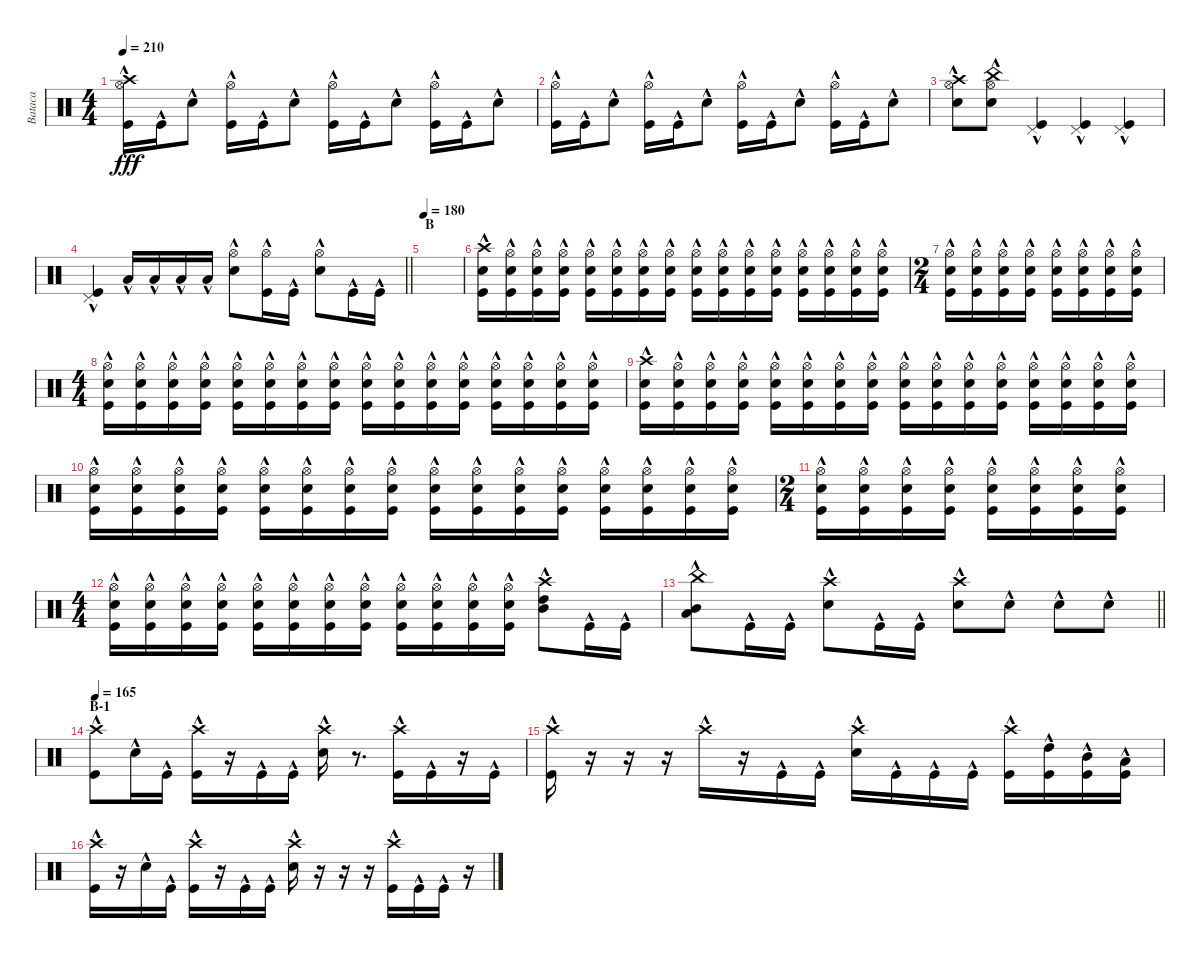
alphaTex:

\track ("Bataca" "Bataca") {instrument percussion}
\staff {score}
\articulation defaults
\ts (4 4)
\tempo 210
\clef neutral
\ks c
("Crash high (hit)"{hac} "Hi-Hat (open)"{hac} "Kick (hit)"{hac}).16{dy fff} "Kick (hit)"{hac}.16 "Electric Snare (hit)"{hac}.8 ("Hi-Hat (open)"{hac} "Kick (hit)"{hac}).16 "Kick (hit)"{hac}.16 "Electric Snare (hit)"{hac}.8 ("Hi-Hat (open)"{hac} "Kick (hit)"{hac}).16 "Kick (hit)"{hac}.16 "Electric Snare (hit)"{hac}.8 ("Hi-Hat (open)"{hac} "Kick (hit)"{hac}).16 "Kick (hit)"{hac}.16 "Electric Snare (hit)"{hac}.8 |
("Hi-Hat (open)"{hac} "Kick (hit)"{hac}).16 "Kick (hit)"{hac}.16 "Electric Snare (hit)"{hac}.8 ("Hi-Hat (open)"{hac} "Kick (hit)"{hac}).16 "Kick (hit)"{hac}.16 "Electric Snare (hit)"{hac}.8 ("Hi-Hat (open)"{hac} "Kick (hit)"{hac}).16 "Kick (hit)"{hac}.16 "Electric Snare (hit)"{hac}.8 ("Hi-Hat (open)"{hac} "Kick (hit)"{hac}).16 "Kick (hit)"{hac}.16 "Electric Snare (hit)"{hac}.8 |
("Crash high (hit)"{hac} "Hi-Hat (open)"{hac} "Electric Snare (hit)"{hac}).8 ("China (hit)"{hac} "Hi-Hat (open)"{hac} "Electric Snare (hit)"{hac}).8 ("Pedal Hi-Hat (hit)"{hac} "Kick (hit)"{hac}).4 ("Pedal Hi-Hat (hit)"{hac} "Kick (hit)"{hac}).4 ("Pedal Hi-Hat (hit)"{hac} "Kick (hit)"{hac}).4 |
\barLineRight lightlight
("Pedal Hi-Hat (hit)"{hac} "Kick (hit)"{hac}).4 "Low Tom (hit)"{hac}.16 "Low Tom (hit)"{hac}.16 "Low Tom (hit)"{hac}.16 "Low Tom (hit)"{hac}.16 ("Hi-Hat (open)"{hac} "Electric Snare (hit)"{hac}).8 ("Hi-Hat (open)"{hac} "Kick (hit)"{hac}).16 "Kick (hit)"{hac}.16 ("Hi-Hat (open)"{hac} "Electric Snare (hit)"{hac}).8 "Kick (hit)"{hac}.16 "Kick (hit)"{hac}.16 |
\section ("" "B")
\tempo 180
|
("Crash high (hit)"{hac} "Electric Snare (hit)"{hac} "Kick (hit)"{hac}).16 ("Hi-Hat (open)"{hac} "Electric Snare (hit)"{hac} "Kick (hit)"{hac}).16 ("Hi-Hat (open)"{hac} "Electric Snare (hit)"{hac} "Kick (hit)"{hac}).16 ("Hi-Hat (open)"{hac} "Electric Snare (hit)"{hac} "Kick (hit)"{hac}).16 ("Hi-Hat (open)"{hac} "Electric Snare (hit)"{hac} "Kick (hit)"{hac}).16 ("Hi-Hat (open)"{hac} "Electric Snare (hit)"{hac} "Kick (hit)"{hac}).16 ("Hi-Hat (open)"{hac} "Electric Snare (hit)"{hac} "Kick (hit)"{hac}).16 ("Hi-Hat (open)"{hac} "Electric Snare (hit)"{hac} "Kick (hit)"{hac}).16 ("Hi-Hat (open)"{hac} "Electric Snare (hit)"{hac} "Kick (hit)"{hac}).16 ("Hi-Hat (open)"{hac} "Electric Snare (hit)"{hac} "Kick (hit)"{hac}).16 ("Hi-Hat (open)"{hac} "Electric Snare (hit)"{hac} "Kick (hit)"{hac}).16 ("Hi-Hat (open)"{hac} "Electric Snare (hit)"{hac} "Kick (hit)"{hac}).16 ("Hi-Hat (open)"{hac} "Electric Snare (hit)"{hac} "Kick (hit)"{hac}).16 ("Hi-Hat (open)"{hac} "Electric Snare (hit)"{hac} "Kick (hit)"{hac}).16 ("Hi-Hat (open)"{hac} "Electric Snare (hit)"{hac} "Kick (hit)"{hac}).16 ("Hi-Hat (open)"{hac} "Electric Snare (hit)"{hac} "Kick (hit)"{hac}).16 |
\ts (2 4)
("Hi-Hat (open)"{hac} "Electric Snare (hit)"{hac} "Kick (hit)"{hac}).16 ("Hi-Hat (open)"{hac} "Electric Snare (hit)"{hac} "Kick (hit)"{hac}).16 ("Hi-Hat (open)"{hac} "Electric Snare (hit)"{hac} "Kick (hit)"{hac}).16 ("Hi-Hat (open)"{hac} "Electric Snare (hit)"{hac} "Kick (hit)"{hac}).16 ("Hi-Hat (open)"{hac} "Electric Snare (hit)"{hac} "Kick (hit)"{hac}).16 ("Hi-Hat (open)"{hac} "Electric Snare (hit)"{hac} "Kick (hit)"{hac}).16 ("Hi-Hat (open)"{hac} "Electric Snare (hit)"{hac} "Kick (hit)"{hac}).16 ("Hi-Hat (open)"{hac} "Electric Snare (hit)"{hac} "Kick (hit)"{hac}).16 |
\ts (4 4)
("Hi-Hat (open)"{hac} "Electric Snare (hit)"{hac} "Kick (hit)"{hac}).16 ("Hi-Hat (open)"{hac} "Electric Snare (hit)"{hac} "Kick (hit)"{hac}).16 ("Hi-Hat (open)"{hac} "Electric Snare (hit)"{hac} "Kick (hit)"{hac}).16 ("Hi-Hat (open)"{hac} "Electric Snare (hit)"{hac} "Kick (hit)"{hac}).16 ("Hi-Hat (open)"{hac} "Electric Snare (hit)"{hac} "Kick (hit)"{hac}).16 ("Hi-Hat (open)"{hac} "Electric Snare (hit)"{hac} "Kick (hit)"{hac}).16 ("Hi-Hat (open)"{hac} "Electric Snare (hit)"{hac} "Kick (hit)"{hac}).16 ("Hi-Hat (open)"{hac} "Electric Snare (hit)"{hac} "Kick (hit)"{hac}).16 ("Hi-Hat (open)"{hac} "Electric Snare (hit)"{hac} "Kick (hit)"{hac}).16 ("Hi-Hat (open)"{hac} "Electric Snare (hit)"{hac} "Kick (hit)"{hac}).16 ("Hi-Hat (open)"{hac} "Electric Snare (hit)"{hac} "Kick (hit)"{hac}).16 ("Hi-Hat (open)"{hac} "Electric Snare (hit)"{hac} "Kick (hit)"{hac}).16 ("Hi-Hat (open)"{hac} "Electric Snare (hit)"{hac} "Kick (hit)"{hac}).16 ("Hi-Hat (open)"{hac} "Electric Snare (hit)"{hac} "Kick (hit)"{hac}).16 ("Hi-Hat (open)"{hac} "Electric Snare (hit)"{hac} "Kick (hit)"{hac}).16 ("Hi-Hat (open)"{hac} "Electric Snare (hit)"{hac} "Kick (hit)"{hac}).16 |
("Crash high (hit)"{hac} "Electric Snare (hit)"{hac} "Kick (hit)"{hac}).16 ("Hi-Hat (open)"{hac} "Electric Snare (hit)"{hac} "Kick (hit)"{hac}).16 ("Hi-Hat (open)"{hac} "Electric Snare (hit)"{hac} "Kick (hit)"{hac}).16 ("Hi-Hat (open)"{hac} "Electric Snare (hit)"{hac} "Kick (hit)"{hac}).16 ("Hi-Hat (open)"{hac} "Electric Snare (hit)"{hac} "Kick (hit)"{hac}).16 ("Hi-Hat (open)"{hac} "Electric Snare (hit)"{hac} "Kick (hit)"{hac}).16 ("Hi-Hat (open)"{hac} "Electric Snare (hit)"{hac} "Kick (hit)"{hac}).16 ("Hi-Hat (open)"{hac} "Electric Snare (hit)"{hac} "Kick (hit)"{hac}).16 ("Hi-Hat (open)"{hac} "Electric Snare (hit)"{hac} "Kick (hit)"{hac}).16 ("Hi-Hat (open)"{hac} "Electric Snare (hit)"{hac} "Kick (hit)"{hac}).16 ("Hi-Hat (open)"{hac} "Electric Snare (hit)"{hac} "Kick (hit)"{hac}).16 ("Hi-Hat (open)"{hac} "Electric Snare (hit)"{hac} "Kick (hit)"{hac}).16 ("Hi-Hat (open)"{hac} "Electric Snare (hit)"{hac} "Kick (hit)"{hac}).16 ("Hi-Hat (open)"{hac} "Electric Snare (hit)"{hac} "Kick (hit)"{hac}).16 ("Hi-Hat (open)"{hac} "Electric Snare (hit)"{hac} "Kick (hit)"{hac}).16 ("Hi-Hat (open)"{hac} "Electric Snare (hit)"{hac} "Kick (hit)"{hac}).16 |
("Hi-Hat (open)"{hac} "Electric Snare (hit)"{hac} "Kick (hit)"{hac}).16 ("Hi-Hat (open)"{hac} "Electric Snare (hit)"{hac} "Kick (hit)"{hac}).16 ("Hi-Hat (open)"{hac} "Electric Snare (hit)"{hac} "Kick (hit)"{hac}).16 ("Hi-Hat (open)"{hac} "Electric Snare (hit)"{hac} "Kick (hit)"{hac}).16 ("Hi-Hat (open)"{hac} "Electric Snare (hit)"{hac} "Kick (hit)"{hac}).16 ("Hi-Hat (open)"{hac} "Electric Snare (hit)"{hac} "Kick (hit)"{hac}).16 ("Hi-Hat (open)"{hac} "Electric Snare (hit)"{hac} "Kick (hit)"{hac}).16 ("Hi-Hat (open)"{hac} "Electric Snare (hit)"{hac} "Kick (hit)"{hac}).16 ("Hi-Hat (open)"{hac} "Electric Snare (hit)"{hac} "Kick (hit)"{hac}).16 ("Hi-Hat (open)"{hac} "Electric Snare (hit)"{hac} "Kick (hit)"{hac}).16 ("Hi-Hat (open)"{hac} "Electric Snare (hit)"{hac} "Kick (hit)"{hac}).16 ("Hi-Hat (open)"{hac} "Electric Snare (hit)"{hac} "Kick (hit)"{hac}).16 ("Hi-Hat (open)"{hac} "Electric Snare (hit)"{hac} "Kick (hit)"{hac}).16 ("Hi-Hat (open)"{hac} "Electric Snare (hit)"{hac} "Kick (hit)"{hac}).16 ("Hi-Hat (open)"{hac} "Electric Snare (hit)"{hac} "Kick (hit)"{hac}).16 ("Hi-Hat (open)"{hac} "Electric Snare (hit)"{hac} "Kick (hit)"{hac}).16 |
\ts (2 4)
("Hi-Hat (open)"{hac} "Electric Snare (hit)"{hac} "Kick (hit)"{hac}).16 ("Hi-Hat (open)"{hac} "Electric Snare (hit)"{hac} "Kick (hit)"{hac}).16 ("Hi-Hat (open)"{hac} "Electric Snare (hit)"{hac} "Kick (hit)"{hac}).16 ("Hi-Hat (open)"{hac} "Electric Snare (hit)"{hac} "Kick (hit)"{hac}).16 ("Hi-Hat (open)"{hac} "Electric Snare (hit)"{hac} "Kick (hit)"{hac}).16 ("Hi-Hat (open)"{hac} "Electric Snare (hit)"{hac} "Kick (hit)"{hac}).16 ("Hi-Hat (open)"{hac} "Electric Snare (hit)"{hac} "Kick (hit)"{hac}).16 ("Hi-Hat (open)"{hac} "Electric Snare (hit)"{hac} "Kick (hit)"{hac}).16 |
\ts (4 4)
("Hi-Hat (open)"{hac} "Electric Snare (hit)"{hac} "Kick (hit)"{hac}).16 ("Hi-Hat (open)"{hac} "Electric Snare (hit)"{hac} "Kick (hit)"{hac}).16 ("Hi-Hat (open)"{hac} "Electric Snare (hit)"{hac} "Kick (hit)"{hac}).16 ("Hi-Hat (open)"{hac} "Electric Snare (hit)"{hac} "Kick (hit)"{hac}).16 ("Hi-Hat (open)"{hac} "Electric Snare (hit)"{hac} "Kick (hit)"{hac}).16 ("Hi-Hat (open)"{hac} "Electric Snare (hit)"{hac} "Kick (hit)"{hac}).16 ("Hi-Hat (open)"{hac} "Electric Snare (hit)"{hac} "Kick (hit)"{hac}).16 ("Hi-Hat (open)"{hac} "Electric Snare (hit)"{hac} "Kick (hit)"{hac}).16 ("Hi-Hat (open)"{hac} "Electric Snare (hit)"{hac} "Kick (hit)"{hac}).16 ("Hi-Hat (open)"{hac} "Electric Snare (hit)"{hac} "Kick (hit)"{hac}).16 ("Hi-Hat (open)"{hac} "Electric Snare (hit)"{hac} "Kick (hit)"{hac}).16 ("Hi-Hat (open)"{hac} "Electric Snare (hit)"{hac} "Kick (hit)"{hac}).16 ("Crash high (hit)"{hac} "High Tom (hit)"{hac} "Mid Tom (hit)"{hac}).8 "Kick (hit)"{hac}.16 "Kick (hit)"{hac}.16 |
\barLineRight lightlight
("China (hit)"{hac} "Mid Tom (hit)"{hac} "Low Tom (hit)"{hac}).8 "Kick (hit)"{hac}.16 "Kick (hit)"{hac}.16 ("Crash high (hit)"{hac} "Electric Snare (hit)"{hac}).8 "Kick (hit)"{hac}.16 "Kick (hit)"{hac}.16 ("Crash high (hit)"{hac} "Electric Snare (hit)"{hac}).8 "Electric Snare (hit)"{hac}.8 "Electric Snare (hit)"{hac}.8 "Electric Snare (hit)"{hac}.8 |
\section ("" "B-1")
\tempo 165
("Crash high (hit)"{hac} "Kick (hit)"{hac}).8 "Electric Snare (hit)"{hac}.16 "Kick (hit)"{hac}.16 ("Crash high (hit)"{hac} "Kick (hit)"{hac}).16 r.16 "Kick (hit)"{hac}.16 "Kick (hit)"{hac}.16 ("Crash high (hit)"{hac} "Electric Snare (hit)"{hac}).16 r.8{d} ("Crash high (hit)"{hac} "Kick (hit)"{hac}).16 "Kick (hit)"{hac}.16 r.16 "Kick (hit)"{hac}.16 |
("Crash high (hit)"{hac} "Kick (hit)"{hac}).16 r.16 r.16 r.16 "Crash high (hit)"{hac}.16 r.16 "Kick (hit)"{hac}.16 "Kick (hit)"{hac}.16 ("Crash high (hit)"{hac} "Electric Snare (hit)"{hac}).16 "Kick (hit)"{hac}.16 "Kick (hit)"{hac}.16 "Kick (hit)"{hac}.16 ("Crash high (hit)"{hac} "Kick (hit)"{hac}).16 ("High Tom (hit)"{hac} "Kick (hit)"{hac}).16 ("Mid Tom (hit)"{hac} "Kick (hit)"{hac}).16 ("Low Tom (hit)"{hac} "Kick (hit)"{hac}).16 |
("Crash high (hit)"{hac} "Kick (hit)"{hac}).16 r.16 "Electric Snare (hit)"{hac}.16 "Kick (hit)"{hac}.16 ("Crash high (hit)"{hac} "Kick (hit)"{hac}).16 r.16 "Kick (hit)"{hac}.16 "Kick (hit)"{hac}.16 ("Crash high (hit)"{hac} "Electric Snare (hit)"{hac}).16 r.16 r.16 r.16 ("Crash high (hit)"{hac} "Kick (hit)"{hac}).16 "Kick (hit)"{hac}.16 "Kick (hit)"{hac}.16 r.16
